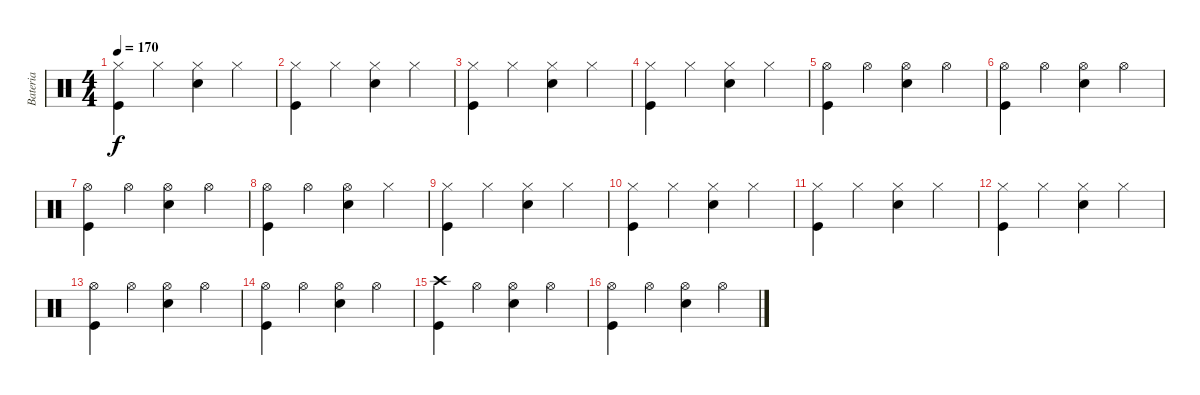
\track ("Bateria" "Bateria") {instrument percussion}
\staff {score}
\articulation defaults
\ts (4 4)
\tempo 170
\clef neutral
\ks c
("Hi-Hat (closed)" "Kick (hit)").4{dy f} "Hi-Hat (closed)".4 ("Hi-Hat (closed)" "Snare (hit) 2").4 "Hi-Hat (closed)".4 |
("Hi-Hat (closed)" "Kick (hit)").4 "Hi-Hat (closed)".4 ("Hi-Hat (closed)" "Snare (hit) 2").4 "Hi-Hat (closed)".4 |
("Hi-Hat (closed)" "Kick (hit)").4 "Hi-Hat (closed)".4 ("Hi-Hat (closed)" "Snare (hit) 2").4 "Hi-Hat (closed)".4 |
("Hi-Hat (closed)" "Kick (hit)").4 "Hi-Hat (closed)".4 ("Hi-Hat (closed)" "Snare (hit) 2").4 "Hi-Hat (closed)".4 |
("Hi-Hat (open)" "Kick (hit)").4 "Hi-Hat (open)".4 ("Hi-Hat (open)" "Snare (hit) 2").4 "Hi-Hat (open)".4 |
("Hi-Hat (open)" "Kick (hit)").4 "Hi-Hat (open)".4 ("Hi-Hat (open)" "Snare (hit) 2").4 "Hi-Hat (open)".4 |
("Hi-Hat (open)" "Kick (hit)").4 "Hi-Hat (open)".4 ("Hi-Hat (open)" "Snare (hit) 2").4 "Hi-Hat (open)".4 |
("Hi-Hat (open)" "Kick (hit)").4 "Hi-Hat (open)".4 ("Hi-Hat (open)" "Snare (hit) 2").4 "Hi-Hat (closed)".4 |
("Hi-Hat (closed)" "Kick (hit)").4 "Hi-Hat (closed)".4 ("Hi-Hat (closed)" "Snare (hit) 2").4 "Hi-Hat (closed)".4 |
("Hi-Hat (closed)" "Kick (hit)").4 "Hi-Hat (closed)".4 ("Hi-Hat (closed)" "Snare (hit) 2").4 "Hi-Hat (closed)".4 |
("Hi-Hat (closed)" "Kick (hit)").4 "Hi-Hat (closed)".4 ("Hi-Hat (closed)" "Snare (hit) 2").4 "Hi-Hat (closed)".4 |
("Hi-Hat (closed)" "Kick (hit)").4 "Hi-Hat (closed)".4 ("Hi-Hat (closed)" "Snare (hit) 2").4 "Hi-Hat (closed)".4 |
("Hi-Hat (open)" "Kick (hit)").4 "Hi-Hat (open)".4 ("Hi-Hat (open)" "Snare (hit) 2").4 "Hi-Hat (open)".4 |
("Hi-Hat (open)" "Kick (hit)").4 "Hi-Hat (open)".4 ("Hi-Hat (open)" "Snare (hit) 2").4 "Hi-Hat (open)".4 |
("Crash high (hit)" "Kick (hit)").4 "Hi-Hat (open)".4 ("Hi-Hat (open)" "Snare (hit) 2").4 "Hi-Hat (open)".4 |
("Hi-Hat (open)" "Kick (hit)").4 "Hi-Hat (open)".4 ("Hi-Hat (open)" "Snare (hit) 2").4 "Hi-Hat (open)".4
